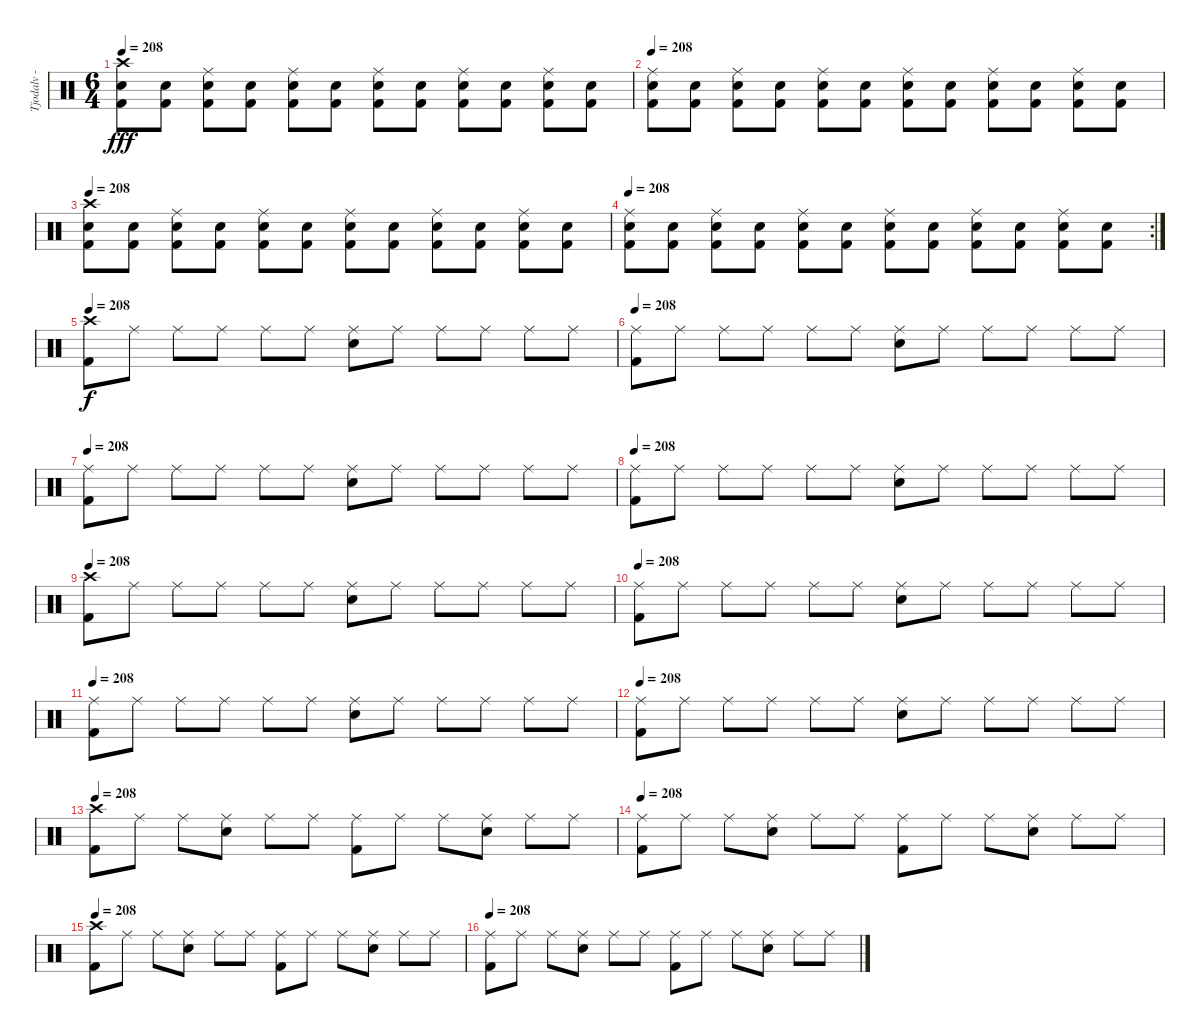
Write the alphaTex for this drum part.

\track ("Tjodalv - Drums" "Tjodalv - ") {instrument percussion}
\staff {score}
\articulation defaults
\ts (6 4)
\tempo 208
\clef neutral
\ks c
("Kick (hit) 2" "Snare (hit) 2" "Crash high (hit)").8{dy fff} ("Kick (hit) 2" "Snare (hit) 2").8 ("Kick (hit) 2" "Snare (hit) 2" "Ride (middle)").8 ("Kick (hit) 2" "Snare (hit) 2").8 ("Kick (hit) 2" "Snare (hit) 2" "Ride (middle)").8 ("Kick (hit) 2" "Snare (hit) 2").8 ("Kick (hit) 2" "Snare (hit) 2" "Ride (middle)").8 ("Kick (hit) 2" "Snare (hit) 2").8 ("Kick (hit) 2" "Snare (hit) 2" "Ride (middle)").8 ("Kick (hit) 2" "Snare (hit) 2").8 ("Kick (hit) 2" "Snare (hit) 2" "Ride (middle)").8 ("Kick (hit) 2" "Snare (hit) 2").8 |
\tempo 208
("Kick (hit) 2" "Snare (hit) 2" "Ride (middle)").8 ("Kick (hit) 2" "Snare (hit) 2").8 ("Kick (hit) 2" "Snare (hit) 2" "Ride (middle)").8 ("Kick (hit) 2" "Snare (hit) 2").8 ("Kick (hit) 2" "Snare (hit) 2" "Ride (middle)").8 ("Kick (hit) 2" "Snare (hit) 2").8 ("Kick (hit) 2" "Snare (hit) 2" "Ride (middle)").8 ("Kick (hit) 2" "Snare (hit) 2").8 ("Kick (hit) 2" "Snare (hit) 2" "Ride (middle)").8 ("Kick (hit) 2" "Snare (hit) 2").8 ("Kick (hit) 2" "Snare (hit) 2" "Ride (middle)").8 ("Kick (hit) 2" "Snare (hit) 2").8 |
\tempo 208
("Kick (hit) 2" "Snare (hit) 2" "Crash high (hit)").8 ("Kick (hit) 2" "Snare (hit) 2").8 ("Kick (hit) 2" "Snare (hit) 2" "Ride (middle)").8 ("Kick (hit) 2" "Snare (hit) 2").8 ("Kick (hit) 2" "Snare (hit) 2" "Ride (middle)").8 ("Kick (hit) 2" "Snare (hit) 2").8 ("Kick (hit) 2" "Snare (hit) 2" "Ride (middle)").8 ("Kick (hit) 2" "Snare (hit) 2").8 ("Kick (hit) 2" "Snare (hit) 2" "Ride (middle)").8 ("Kick (hit) 2" "Snare (hit) 2").8 ("Kick (hit) 2" "Snare (hit) 2" "Ride (middle)").8 ("Kick (hit) 2" "Snare (hit) 2").8 |
\rc 2
\tempo 208
("Kick (hit) 2" "Snare (hit) 2" "Ride (middle)").8 ("Kick (hit) 2" "Snare (hit) 2").8 ("Kick (hit) 2" "Snare (hit) 2" "Ride (middle)").8 ("Kick (hit) 2" "Snare (hit) 2").8 ("Kick (hit) 2" "Snare (hit) 2" "Ride (middle)").8 ("Kick (hit) 2" "Snare (hit) 2").8 ("Kick (hit) 2" "Snare (hit) 2" "Ride (middle)").8 ("Kick (hit) 2" "Snare (hit) 2").8 ("Kick (hit) 2" "Snare (hit) 2" "Ride (middle)").8 ("Kick (hit) 2" "Snare (hit) 2").8 ("Kick (hit) 2" "Snare (hit) 2" "Ride (middle)").8 ("Kick (hit) 2" "Snare (hit) 2").8 |
\tempo 208
("Kick (hit) 2" "Crash high (hit)").8{dy f} "Ride (middle)".8 "Ride (middle)".8 "Ride (middle)".8 "Ride (middle)".8 "Ride (middle)".8 ("Snare (hit) 2" "Ride (middle)").8 "Ride (middle)".8 "Ride (middle)".8 "Ride (middle)".8 "Ride (middle)".8 "Ride (middle)".8 |
\tempo 208
("Kick (hit) 2" "Ride (middle)").8 "Ride (middle)".8 "Ride (middle)".8 "Ride (middle)".8 "Ride (middle)".8 "Ride (middle)".8 ("Snare (hit) 2" "Ride (middle)").8 "Ride (middle)".8 "Ride (middle)".8 "Ride (middle)".8 "Ride (middle)".8 "Ride (middle)".8 |
\tempo 208
("Kick (hit) 2" "Ride (middle)").8 "Ride (middle)".8 "Ride (middle)".8 "Ride (middle)".8 "Ride (middle)".8 "Ride (middle)".8 ("Snare (hit) 2" "Ride (middle)").8 "Ride (middle)".8 "Ride (middle)".8 "Ride (middle)".8 "Ride (middle)".8 "Ride (middle)".8 |
\tempo 208
("Kick (hit) 2" "Ride (middle)").8 "Ride (middle)".8 "Ride (middle)".8 "Ride (middle)".8 "Ride (middle)".8 "Ride (middle)".8 ("Snare (hit) 2" "Ride (middle)").8 "Ride (middle)".8 "Ride (middle)".8 "Ride (middle)".8 "Ride (middle)".8 "Ride (middle)".8 |
\tempo 208
("Kick (hit) 2" "Crash high (hit)").8 "Ride (middle)".8 "Ride (middle)".8 "Ride (middle)".8 "Ride (middle)".8 "Ride (middle)".8 ("Snare (hit) 2" "Ride (middle)").8 "Ride (middle)".8 "Ride (middle)".8 "Ride (middle)".8 "Ride (middle)".8 "Ride (middle)".8 |
\tempo 208
("Kick (hit) 2" "Ride (middle)").8 "Ride (middle)".8 "Ride (middle)".8 "Ride (middle)".8 "Ride (middle)".8 "Ride (middle)".8 ("Snare (hit) 2" "Ride (middle)").8 "Ride (middle)".8 "Ride (middle)".8 "Ride (middle)".8 "Ride (middle)".8 "Ride (middle)".8 |
\tempo 208
("Kick (hit) 2" "Ride (middle)").8 "Ride (middle)".8 "Ride (middle)".8 "Ride (middle)".8 "Ride (middle)".8 "Ride (middle)".8 ("Snare (hit) 2" "Ride (middle)").8 "Ride (middle)".8 "Ride (middle)".8 "Ride (middle)".8 "Ride (middle)".8 "Ride (middle)".8 |
\tempo 208
("Kick (hit) 2" "Ride (middle)").8 "Ride (middle)".8 "Ride (middle)".8 "Ride (middle)".8 "Ride (middle)".8 "Ride (middle)".8 ("Snare (hit) 2" "Ride (middle)").8 "Ride (middle)".8 "Ride (middle)".8 "Ride (middle)".8 "Ride (middle)".8 "Ride (middle)".8 |
\tempo 208
("Kick (hit) 2" "Crash high (hit)").8 "Ride (middle)".8 "Ride (middle)".8 ("Snare (hit) 2" "Ride (middle)").8 "Ride (middle)".8 "Ride (middle)".8 ("Kick (hit) 2" "Ride (middle)").8 "Ride (middle)".8 "Ride (middle)".8 ("Snare (hit) 2" "Ride (middle)").8 "Ride (middle)".8 "Ride (middle)".8 |
\tempo 208
("Kick (hit) 2" "Ride (middle)").8 "Ride (middle)".8 "Ride (middle)".8 ("Snare (hit) 2" "Ride (middle)").8 "Ride (middle)".8 "Ride (middle)".8 ("Kick (hit) 2" "Ride (middle)").8 "Ride (middle)".8 "Ride (middle)".8 ("Snare (hit) 2" "Ride (middle)").8 "Ride (middle)".8 "Ride (middle)".8 |
\tempo 208
("Kick (hit) 2" "Crash high (hit)").8 "Ride (middle)".8 "Ride (middle)".8 ("Snare (hit) 2" "Ride (middle)").8 "Ride (middle)".8 "Ride (middle)".8 ("Kick (hit) 2" "Ride (middle)").8 "Ride (middle)".8 "Ride (middle)".8 ("Snare (hit) 2" "Ride (middle)").8 "Ride (middle)".8 "Ride (middle)".8 |
\tempo 208
("Kick (hit) 2" "Ride (middle)").8 "Ride (middle)".8 "Ride (middle)".8 ("Snare (hit) 2" "Ride (middle)").8 "Ride (middle)".8 "Ride (middle)".8 ("Kick (hit) 2" "Ride (middle)").8 "Ride (middle)".8 "Ride (middle)".8 ("Snare (hit) 2" "Ride (middle)").8 "Ride (middle)".8 "Ride (middle)".8
